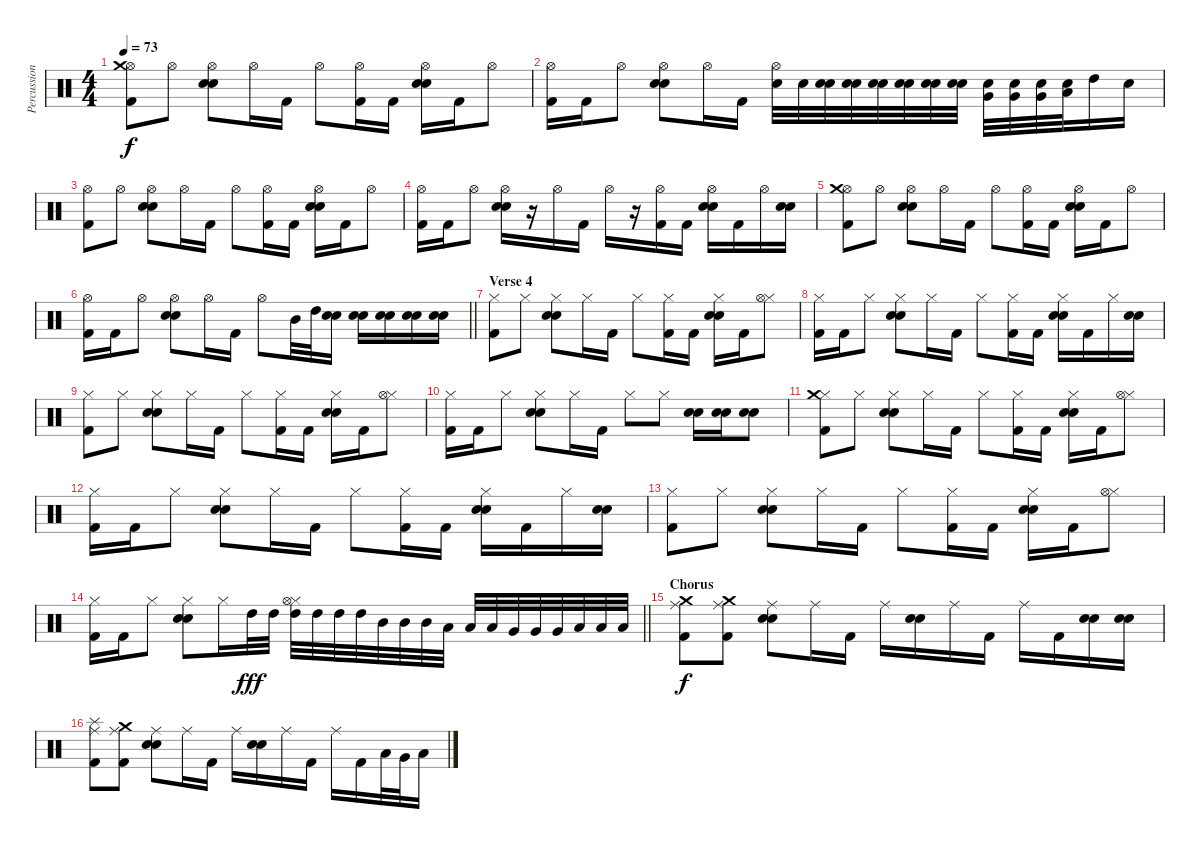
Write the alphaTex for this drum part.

\track ("Percussion" "Percussion") {instrument percussion}
\staff {score}
\articulation defaults
\ts (4 4)
\tempo 73
\clef neutral
\ks c
("Hi-Hat (open)" "Crash medium (hit)" "Kick (hit) 2").8{dy f} "Hi-Hat (open)".8 ("Hi-Hat (open)" "Electric Snare (hit)" "Snare (hit) 2").8 "Hi-Hat (open)".16 "Kick (hit) 2".16 "Hi-Hat (open)".8 ("Hi-Hat (open)" "Kick (hit) 2").16 "Kick (hit) 2".16 ("Hi-Hat (open)" "Electric Snare (hit)" "Snare (hit) 2").16 "Kick (hit) 2".16 "Hi-Hat (open)".8 |
("Hi-Hat (open)" "Kick (hit) 2").16 "Kick (hit) 2".16 "Hi-Hat (open)".8 ("Hi-Hat (open)" "Electric Snare (hit)" "Snare (hit) 2").8 "Hi-Hat (open)".16 "Kick (hit) 2".16 ("Hi-Hat (open)" "Snare (hit) 2").32 "Snare (hit) 2".32 ("Electric Snare (hit)" "Snare (hit) 2").32 ("Electric Snare (hit)" "Snare (hit) 2").32 ("Electric Snare (hit)" "Snare (hit) 2").32 ("Electric Snare (hit)" "Snare (hit) 2").32 ("Electric Snare (hit)" "Snare (hit) 2").32 ("Electric Snare (hit)" "Snare (hit) 2").32 ("Electric Snare (hit)" "Very Low Tom (hit)").32 ("Electric Snare (hit)" "Very Low Tom (hit)").32 ("Electric Snare (hit)" "Very Low Tom (hit)").32 ("Electric Snare (hit)" "Low Floor Tom (hit)").32 "High Tom (hit)".16 "Electric Snare (hit)".16 |
("Hi-Hat (open)" "Kick (hit) 2").8 "Hi-Hat (open)".8 ("Hi-Hat (open)" "Electric Snare (hit)" "Snare (hit) 2").8 "Hi-Hat (open)".16 "Kick (hit) 2".16 "Hi-Hat (open)".8 ("Hi-Hat (open)" "Kick (hit) 2").16 "Kick (hit) 2".16 ("Hi-Hat (open)" "Electric Snare (hit)" "Snare (hit) 2").16 "Kick (hit) 2".16 "Hi-Hat (open)".8 |
("Hi-Hat (open)" "Kick (hit) 2").16 "Kick (hit) 2".16 "Hi-Hat (open)".8 ("Hi-Hat (open)" "Electric Snare (hit)" "Snare (hit) 2").16 r.16 "Hi-Hat (open)".16 "Kick (hit) 2".16 "Hi-Hat (open)".16 r.16 ("Hi-Hat (open)" "Kick (hit) 2").16 "Kick (hit) 2".16 ("Hi-Hat (open)" "Electric Snare (hit)" "Snare (hit) 2").16 "Kick (hit) 2".16 "Hi-Hat (open)".16 ("Electric Snare (hit)" "Snare (hit) 2").16 |
("Hi-Hat (open)" "Crash medium (hit)" "Kick (hit) 2").8 "Hi-Hat (open)".8 ("Hi-Hat (open)" "Electric Snare (hit)" "Snare (hit) 2").8 "Hi-Hat (open)".16 "Kick (hit) 2".16 "Hi-Hat (open)".8 ("Hi-Hat (open)" "Kick (hit) 2").16 "Kick (hit) 2".16 ("Hi-Hat (open)" "Electric Snare (hit)" "Snare (hit) 2").16 "Kick (hit) 2".16 "Hi-Hat (open)".8 |
\barLineRight lightlight
("Hi-Hat (open)" "Kick (hit) 2").16 "Kick (hit) 2".16 "Hi-Hat (open)".8 ("Hi-Hat (open)" "Electric Snare (hit)" "Snare (hit) 2").8 "Hi-Hat (open)".16 "Kick (hit) 2".16 "Hi-Hat (open)".8 "Mid Tom (hit)".32 "High Tom (hit)".32 ("Electric Snare (hit)" "Snare (hit) 2").16 ("Electric Snare (hit)" "Snare (hit) 2").16 ("Electric Snare (hit)" "Snare (hit) 2").16 ("Electric Snare (hit)" "Snare (hit) 2").16 ("Electric Snare (hit)" "Snare (hit) 2").16 |
\section ("" "Verse 4")
("Hi-Hat (closed)" "Kick (hit) 2").8 "Hi-Hat (closed)".8 ("Hi-Hat (closed)" "Electric Snare (hit)" "Snare (hit) 2").8 "Hi-Hat (closed)".16 "Kick (hit) 2".16 "Hi-Hat (closed)".8 ("Hi-Hat (closed)" "Kick (hit) 2").16 "Kick (hit) 2".16 ("Hi-Hat (closed)" "Electric Snare (hit)" "Snare (hit) 2").16 "Kick (hit) 2".16 ("Hi-Hat (closed)" "Hi-Hat (open)").8 |
("Hi-Hat (closed)" "Kick (hit) 2").16 "Kick (hit) 2".16 "Hi-Hat (closed)".8 ("Hi-Hat (closed)" "Electric Snare (hit)" "Snare (hit) 2").8 "Hi-Hat (closed)".16 "Kick (hit) 2".16 "Hi-Hat (closed)".8 ("Hi-Hat (closed)" "Kick (hit) 2").16 "Kick (hit) 2".16 ("Hi-Hat (closed)" "Electric Snare (hit)" "Snare (hit) 2").16 "Kick (hit) 2".16 "Hi-Hat (closed)".16 ("Electric Snare (hit)" "Snare (hit) 2").16 |
("Hi-Hat (closed)" "Kick (hit) 2").8 "Hi-Hat (closed)".8 ("Hi-Hat (closed)" "Electric Snare (hit)" "Snare (hit) 2").8 "Hi-Hat (closed)".16 "Kick (hit) 2".16 "Hi-Hat (closed)".8 ("Hi-Hat (closed)" "Kick (hit) 2").16 "Kick (hit) 2".16 ("Hi-Hat (closed)" "Electric Snare (hit)" "Snare (hit) 2").16 "Kick (hit) 2".16 ("Hi-Hat (closed)" "Hi-Hat (open)").8 |
("Hi-Hat (closed)" "Kick (hit) 2").16 "Kick (hit) 2".16 "Hi-Hat (closed)".8 ("Hi-Hat (closed)" "Electric Snare (hit)" "Snare (hit) 2").8 "Hi-Hat (closed)".16 "Kick (hit) 2".16 "Hi-Hat (closed)".8 "Hi-Hat (closed)".8 ("Electric Snare (hit)" "Snare (hit) 2").16 ("Electric Snare (hit)" "Snare (hit) 2").16 ("Electric Snare (hit)" "Snare (hit) 2").8 |
("Hi-Hat (closed)" "Crash medium (hit)" "Kick (hit) 2").8 "Hi-Hat (closed)".8 ("Hi-Hat (closed)" "Electric Snare (hit)" "Snare (hit) 2").8 "Hi-Hat (closed)".16 "Kick (hit) 2".16 "Hi-Hat (closed)".8 ("Hi-Hat (closed)" "Kick (hit) 2").16 "Kick (hit) 2".16 ("Hi-Hat (closed)" "Electric Snare (hit)" "Snare (hit) 2").16 "Kick (hit) 2".16 ("Hi-Hat (closed)" "Hi-Hat (open)").8 |
("Hi-Hat (closed)" "Kick (hit) 2").16 "Kick (hit) 2".16 "Hi-Hat (closed)".8 ("Hi-Hat (closed)" "Electric Snare (hit)" "Snare (hit) 2").8 "Hi-Hat (closed)".16 "Kick (hit) 2".16 "Hi-Hat (closed)".8 ("Hi-Hat (closed)" "Kick (hit) 2").16 "Kick (hit) 2".16 ("Hi-Hat (closed)" "Electric Snare (hit)" "Snare (hit) 2").16 "Kick (hit) 2".16 "Hi-Hat (closed)".16 ("Electric Snare (hit)" "Snare (hit) 2").16 |
("Hi-Hat (closed)" "Kick (hit) 2").8 "Hi-Hat (closed)".8 ("Hi-Hat (closed)" "Electric Snare (hit)" "Snare (hit) 2").8 "Hi-Hat (closed)".16 "Kick (hit) 2".16 "Hi-Hat (closed)".8 ("Hi-Hat (closed)" "Kick (hit) 2").16 "Kick (hit) 2".16 ("Hi-Hat (closed)" "Electric Snare (hit)" "Snare (hit) 2").16 "Kick (hit) 2".16 ("Hi-Hat (closed)" "Hi-Hat (open)").8 |
\barLineRight lightlight
("Hi-Hat (closed)" "Kick (hit) 2").16 "Kick (hit) 2".16 "Hi-Hat (closed)".8 ("Hi-Hat (closed)" "Electric Snare (hit)" "Snare (hit) 2").8 "Hi-Hat (closed)".16 "High Tom (hit)".32{dy fff} "High Tom (hit)".32 ("Hi-Hat (closed)" "Hi-Hat (open)" "High Tom (hit)").32 "High Tom (hit)".32 "High Tom (hit)".32 "High Tom (hit)".32 "Mid Tom (hit)".32 "Mid Tom (hit)".32 "Mid Tom (hit)".32 "Low Tom (hit)".32 "Low Tom (hit)".32 "Low Tom (hit)".32 "Very Low Tom (hit)".32 "Very Low Tom (hit)".32 "Very Low Tom (hit)".32 "Low Floor Tom (hit)".32 "Low Floor Tom (hit)".32 "Low Floor Tom (hit)".32 |
\section ("" "Chorus")
("Ride (middle)" "Crash medium (hit)" "Kick (hit) 2").8{dy f} ("Ride (middle)" "Crash medium (hit)" "Kick (hit) 2").8 ("Ride (middle)" "Electric Snare (hit)" "Snare (hit) 2").8 "Ride (middle)".16 "Kick (hit) 2".16 "Ride (middle)".16 ("Electric Snare (hit)" "Snare (hit) 2").16 "Ride (middle)".16 "Kick (hit) 2".16 "Ride (middle)".16 "Kick (hit) 2".16 ("Electric Snare (hit)" "Snare (hit) 2").16 ("Electric Snare (hit)" "Snare (hit) 2").16 |
("Ride (middle)" "Splash (hit)" "Kick (hit) 2").8 ("Ride (middle)" "Crash medium (hit)" "Kick (hit) 2").8 ("Ride (middle)" "Electric Snare (hit)" "Snare (hit) 2").8 "Ride (middle)".16 "Kick (hit) 2".16 "Ride (middle)".16 ("Electric Snare (hit)" "Snare (hit) 2").16 "Ride (middle)".16 "Kick (hit) 2".16 "Ride (middle)".16 "Kick (hit) 2".16 "Low Tom (hit)".32 "Very Low Tom (hit)".32 "Low Floor Tom (hit)".16
